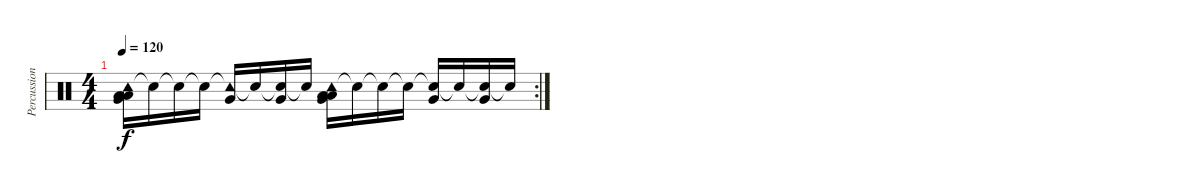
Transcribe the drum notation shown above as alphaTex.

\track ("Percussion" "Percussion") {instrument percussion}
\staff {score}
\articulation defaults
\rc 2
\ts (4 4)
\tempo 120
\clef neutral
\ks c
("Tambourine (hit)" "Low Floor Tom (hit)" "Very Low Tom (hit)" "Low Tom (hit)").16{dy f} "Snare (hit)"{t}.16 "Snare (hit)"{t}.16 "Snare (hit)"{t}.16 ("Tambourine (hit)"{t} "Very Low Tom (hit)").16 "Snare (hit)"{t}.16 ("Snare (hit)"{t} "Very Low Tom (hit)").16 "Snare (hit)"{t}.16 ("Tambourine (hit)" "Low Floor Tom (hit)" "Very Low Tom (hit)" "Low Tom (hit)").16 "Snare (hit)"{t}.16 "Snare (hit)"{t}.16 "Snare (hit)"{t}.16 ("Snare (hit)"{t} "Very Low Tom (hit)").16 "Snare (hit)"{t}.16 ("Snare (hit)"{t} "Very Low Tom (hit)").16 "Snare (hit)"{t}.16
